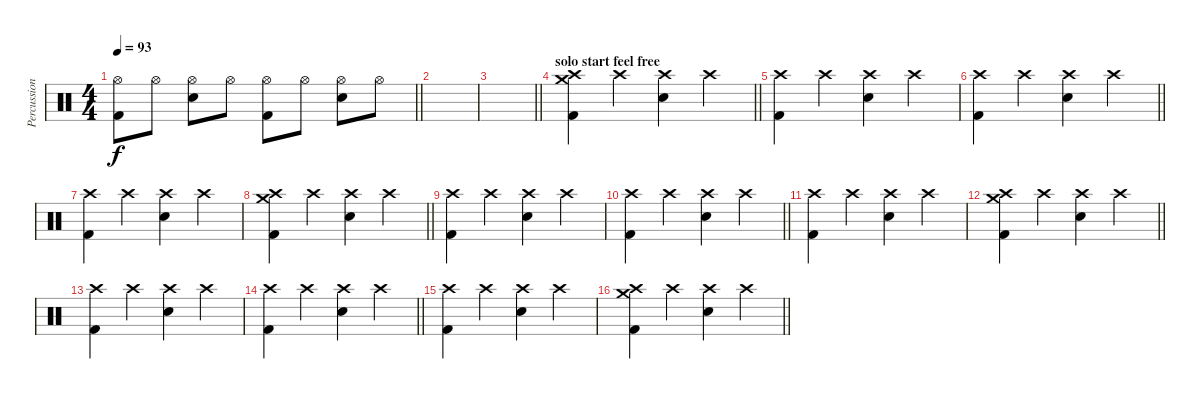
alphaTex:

\track ("Percussion" "Percussion") {instrument percussion}
\staff {score}
\articulation defaults
\ts (4 4)
\tempo 93
\clef neutral
\barLineRight lightlight
\ks c
("Kick (hit) 2" "Hi-Hat (open)").8{dy f} "Hi-Hat (open)".8 ("Electric Snare (hit)" "Hi-Hat (open)").8 "Hi-Hat (open)".8 ("Kick (hit) 2" "Hi-Hat (open)").8 "Hi-Hat (open)".8 ("Electric Snare (hit)" "Hi-Hat (open)").8 "Hi-Hat (open)".8 |
\section ("" "")
|
\barLineRight lightlight
|
\section ("" "solo start feel free")
\barLineRight lightlight
("Kick (hit) 2" "Crash medium (hit)" "Crash high (hit)").4 "Crash high (hit)".4 ("Electric Snare (hit)" "Crash high (hit)").4 "Crash high (hit)".4 |
("Kick (hit) 2" "Crash high (hit)").4 "Crash high (hit)".4 ("Electric Snare (hit)" "Crash high (hit)").4 "Crash high (hit)".4 |
\barLineRight lightlight
("Kick (hit) 2" "Crash high (hit)").4 "Crash high (hit)".4 ("Electric Snare (hit)" "Crash high (hit)").4 "Crash high (hit)".4 |
("Kick (hit) 2" "Crash high (hit)").4 "Crash high (hit)".4 ("Electric Snare (hit)" "Crash high (hit)").4 "Crash high (hit)".4 |
\barLineRight lightlight
("Kick (hit) 2" "Crash medium (hit)" "Crash high (hit)").4 "Crash high (hit)".4 ("Electric Snare (hit)" "Crash high (hit)").4 "Crash high (hit)".4 |
("Kick (hit) 2" "Crash high (hit)").4 "Crash high (hit)".4 ("Electric Snare (hit)" "Crash high (hit)").4 "Crash high (hit)".4 |
\barLineRight lightlight
("Kick (hit) 2" "Crash high (hit)").4 "Crash high (hit)".4 ("Electric Snare (hit)" "Crash high (hit)").4 "Crash high (hit)".4 |
("Kick (hit) 2" "Crash high (hit)").4 "Crash high (hit)".4 ("Electric Snare (hit)" "Crash high (hit)").4 "Crash high (hit)".4 |
\barLineRight lightlight
("Kick (hit) 2" "Crash medium (hit)" "Crash high (hit)").4 "Crash high (hit)".4 ("Electric Snare (hit)" "Crash high (hit)").4 "Crash high (hit)".4 |
("Kick (hit) 2" "Crash high (hit)").4 "Crash high (hit)".4 ("Electric Snare (hit)" "Crash high (hit)").4 "Crash high (hit)".4 |
\barLineRight lightlight
("Kick (hit) 2" "Crash high (hit)").4 "Crash high (hit)".4 ("Electric Snare (hit)" "Crash high (hit)").4 "Crash high (hit)".4 |
("Kick (hit) 2" "Crash high (hit)").4 "Crash high (hit)".4 ("Electric Snare (hit)" "Crash high (hit)").4 "Crash high (hit)".4 |
\barLineRight lightlight
("Kick (hit) 2" "Crash medium (hit)" "Crash high (hit)").4 "Crash high (hit)".4 ("Electric Snare (hit)" "Crash high (hit)").4 "Crash high (hit)".4
